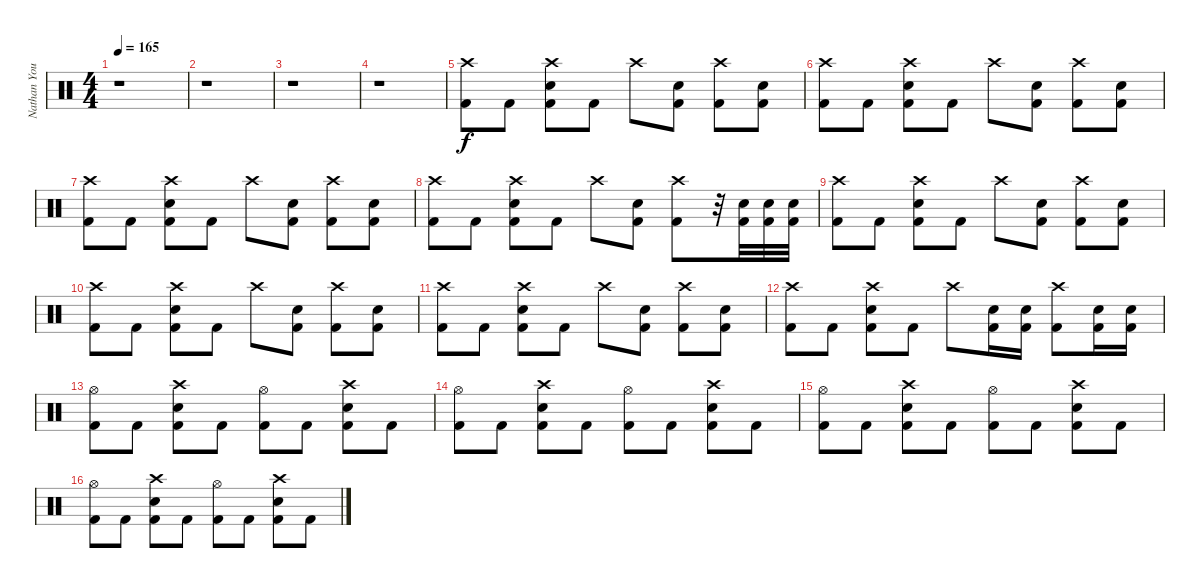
\track ("Nathan Young" "Nathan You") {instrument percussion}
\staff {score}
\articulation defaults
\ts (4 4)
\tempo 165
\clef neutral
\ks c
r.1{dy f} |
r.1 |
r.1 |
r.1 |
("Crash high (hit)" "Kick (hit) 2").8 "Kick (hit) 2".8 ("Crash high (hit)" "Snare (hit) 2" "Kick (hit) 2").8 "Kick (hit) 2".8 "Crash high (hit)".8 ("Snare (hit) 2" "Kick (hit) 2").8 ("Crash high (hit)" "Kick (hit) 2").8 ("Snare (hit) 2" "Kick (hit) 2").8 |
("Crash high (hit)" "Kick (hit) 2").8 "Kick (hit) 2".8 ("Crash high (hit)" "Snare (hit) 2" "Kick (hit) 2").8 "Kick (hit) 2".8 "Crash high (hit)".8 ("Snare (hit) 2" "Kick (hit) 2").8 ("Crash high (hit)" "Kick (hit) 2").8 ("Snare (hit) 2" "Kick (hit) 2").8 |
("Crash high (hit)" "Kick (hit) 2").8 "Kick (hit) 2".8 ("Crash high (hit)" "Snare (hit) 2" "Kick (hit) 2").8 "Kick (hit) 2".8 "Crash high (hit)".8 ("Snare (hit) 2" "Kick (hit) 2").8 ("Crash high (hit)" "Kick (hit) 2").8 ("Snare (hit) 2" "Kick (hit) 2").8 |
("Crash high (hit)" "Kick (hit) 2").8 "Kick (hit) 2".8 ("Crash high (hit)" "Snare (hit) 2" "Kick (hit) 2").8 "Kick (hit) 2".8 "Crash high (hit)".8 ("Snare (hit) 2" "Kick (hit) 2").8 ("Crash high (hit)" "Kick (hit) 2").8 r.32 ("Snare (hit) 2" "Kick (hit) 2").32 ("Snare (hit) 2" "Kick (hit) 2").32 ("Snare (hit) 2" "Kick (hit) 2").32 |
("Crash high (hit)" "Kick (hit) 2").8 "Kick (hit) 2".8 ("Crash high (hit)" "Snare (hit) 2" "Kick (hit) 2").8 "Kick (hit) 2".8 "Crash high (hit)".8 ("Snare (hit) 2" "Kick (hit) 2").8 ("Crash high (hit)" "Kick (hit) 2").8 ("Snare (hit) 2" "Kick (hit) 2").8 |
("Crash high (hit)" "Kick (hit) 2").8 "Kick (hit) 2".8 ("Crash high (hit)" "Snare (hit) 2" "Kick (hit) 2").8 "Kick (hit) 2".8 "Crash high (hit)".8 ("Snare (hit) 2" "Kick (hit) 2").8 ("Crash high (hit)" "Kick (hit) 2").8 ("Snare (hit) 2" "Kick (hit) 2").8 |
("Crash high (hit)" "Kick (hit) 2").8 "Kick (hit) 2".8 ("Crash high (hit)" "Snare (hit) 2" "Kick (hit) 2").8 "Kick (hit) 2".8 "Crash high (hit)".8 ("Snare (hit) 2" "Kick (hit) 2").8 ("Crash high (hit)" "Kick (hit) 2").8 ("Snare (hit) 2" "Kick (hit) 2").8 |
("Crash high (hit)" "Kick (hit) 2").8 "Kick (hit) 2".8 ("Crash high (hit)" "Snare (hit) 2" "Kick (hit) 2").8 "Kick (hit) 2".8 "Crash high (hit)".8 ("Snare (hit) 2" "Kick (hit) 2").16 ("Snare (hit) 2" "Kick (hit) 2").16 ("Crash high (hit)" "Kick (hit) 2").8 ("Snare (hit) 2" "Kick (hit) 2").16 ("Snare (hit) 2" "Kick (hit) 2").16 |
("Hi-Hat (open)" "Kick (hit) 2").8 "Kick (hit) 2".8 ("Crash high (hit)" "Snare (hit) 2" "Kick (hit) 2").8 "Kick (hit) 2".8 ("Hi-Hat (open)" "Kick (hit) 2").8 "Kick (hit) 2".8 ("Crash high (hit)" "Snare (hit) 2" "Kick (hit) 2").8 "Kick (hit) 2".8 |
("Hi-Hat (open)" "Kick (hit) 2").8 "Kick (hit) 2".8 ("Crash high (hit)" "Snare (hit) 2" "Kick (hit) 2").8 "Kick (hit) 2".8 ("Hi-Hat (open)" "Kick (hit) 2").8 "Kick (hit) 2".8 ("Crash high (hit)" "Snare (hit) 2" "Kick (hit) 2").8 "Kick (hit) 2".8 |
("Hi-Hat (open)" "Kick (hit) 2").8 "Kick (hit) 2".8 ("Crash high (hit)" "Snare (hit) 2" "Kick (hit) 2").8 "Kick (hit) 2".8 ("Hi-Hat (open)" "Kick (hit) 2").8 "Kick (hit) 2".8 ("Crash high (hit)" "Snare (hit) 2" "Kick (hit) 2").8 "Kick (hit) 2".8 |
("Hi-Hat (open)" "Kick (hit) 2").8 "Kick (hit) 2".8 ("Crash high (hit)" "Snare (hit) 2" "Kick (hit) 2").8 "Kick (hit) 2".8 ("Hi-Hat (open)" "Kick (hit) 2").8 "Kick (hit) 2".8 ("Crash high (hit)" "Snare (hit) 2" "Kick (hit) 2").8 "Kick (hit) 2".8
